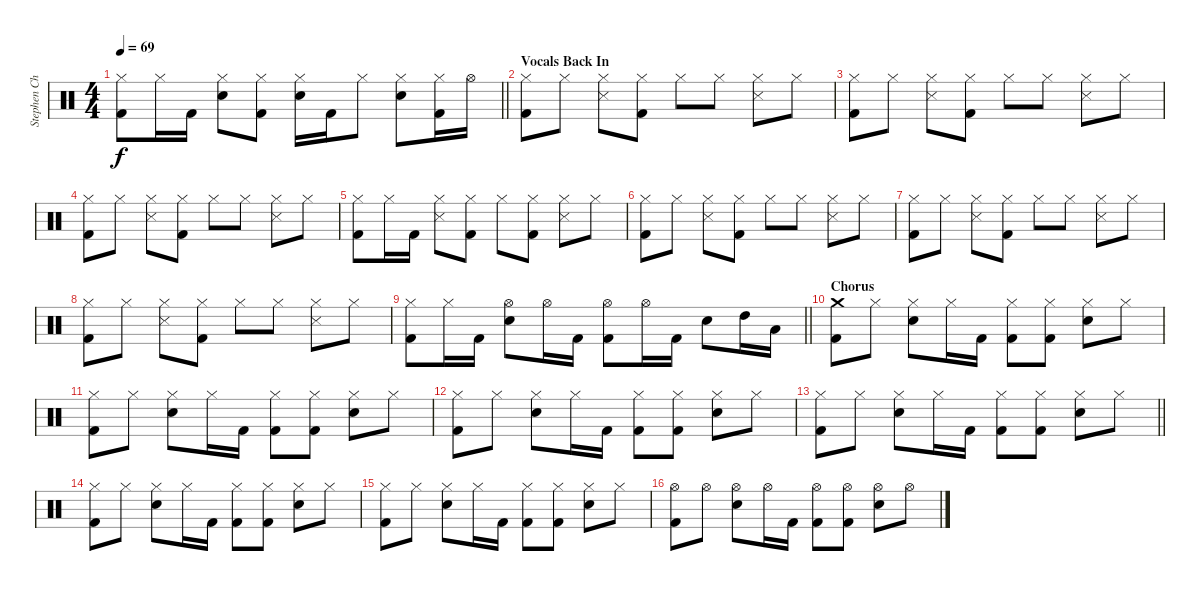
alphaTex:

\track ("Stephen Chopek" "Stephen Ch") {instrument percussion}
\staff {score}
\articulation defaults
\ts (4 4)
\tempo 69
\clef neutral
\barLineRight lightlight
\ks c
("Hi-Hat (closed)" "Kick (hit) 2").8{dy f} "Hi-Hat (closed)".16 "Kick (hit) 2".16 ("Hi-Hat (closed)" "Snare (hit) 2").8 ("Hi-Hat (closed)" "Kick (hit) 2").8 ("Hi-Hat (closed)" "Snare (hit) 2").16 "Kick (hit) 2".16 "Hi-Hat (closed)".8 ("Hi-Hat (closed)" "Snare (hit) 2").8 ("Hi-Hat (closed)" "Kick (hit) 2").16 "Hi-Hat (open)".16 |
\section ("" "Vocals Back In")
("Hi-Hat (closed)" "Kick (hit) 2").8{volume 11} "Hi-Hat (closed)".8 ("Hi-Hat (closed)" "Snare (side stick) 3").8 ("Hi-Hat (closed)" "Kick (hit) 2").8 "Hi-Hat (closed)".8 "Hi-Hat (closed)".8 ("Hi-Hat (closed)" "Snare (side stick) 3").8 "Hi-Hat (closed)".8 |
("Hi-Hat (closed)" "Kick (hit) 2").8 "Hi-Hat (closed)".8 ("Hi-Hat (closed)" "Snare (side stick) 3").8 ("Hi-Hat (closed)" "Kick (hit) 2").8 "Hi-Hat (closed)".8 "Hi-Hat (closed)".8 ("Hi-Hat (closed)" "Snare (side stick) 3").8 "Hi-Hat (closed)".8 |
("Hi-Hat (closed)" "Kick (hit) 2").8 "Hi-Hat (closed)".8 ("Hi-Hat (closed)" "Snare (side stick) 3").8 ("Hi-Hat (closed)" "Kick (hit) 2").8 "Hi-Hat (closed)".8 "Hi-Hat (closed)".8 ("Hi-Hat (closed)" "Snare (side stick) 3").8 "Hi-Hat (closed)".8 |
("Hi-Hat (closed)" "Kick (hit) 2").8 "Hi-Hat (closed)".16 "Kick (hit) 2".16 ("Hi-Hat (closed)" "Snare (side stick) 3").8 ("Hi-Hat (closed)" "Kick (hit) 2").8 "Hi-Hat (closed)".8 ("Hi-Hat (closed)" "Kick (hit) 2").8 ("Hi-Hat (closed)" "Snare (side stick) 3").8 "Hi-Hat (closed)".8 |
("Hi-Hat (closed)" "Kick (hit) 2").8 "Hi-Hat (closed)".8 ("Hi-Hat (closed)" "Snare (side stick) 3").8 ("Hi-Hat (closed)" "Kick (hit) 2").8 "Hi-Hat (closed)".8 "Hi-Hat (closed)".8 ("Hi-Hat (closed)" "Snare (side stick) 3").8 "Hi-Hat (closed)".8 |
("Hi-Hat (closed)" "Kick (hit) 2").8 "Hi-Hat (closed)".8 ("Hi-Hat (closed)" "Snare (side stick) 3").8 ("Hi-Hat (closed)" "Kick (hit) 2").8 "Hi-Hat (closed)".8 "Hi-Hat (closed)".8 ("Hi-Hat (closed)" "Snare (side stick) 3").8 "Hi-Hat (closed)".8 |
("Hi-Hat (closed)" "Kick (hit) 2").8 "Hi-Hat (closed)".8 ("Hi-Hat (closed)" "Snare (side stick) 3").8 ("Hi-Hat (closed)" "Kick (hit) 2").8 "Hi-Hat (closed)".8 "Hi-Hat (closed)".8 ("Hi-Hat (closed)" "Snare (side stick) 3").8 "Hi-Hat (closed)".8 |
\barLineRight lightlight
("Hi-Hat (closed)" "Kick (hit) 2").8{volume 14} "Hi-Hat (closed)".16 "Kick (hit) 2".16 ("Hi-Hat (open)" "Snare (hit) 2").8 "Hi-Hat (open)".16 "Kick (hit) 2".16 ("Hi-Hat (open)" "Kick (hit) 2").8 "Hi-Hat (open)".16 "Kick (hit) 2".16 "Snare (hit) 2".8 "High Tom (hit)".16 "Low Tom (hit)".16 |
\section ("" "Chorus")
("Crash medium (hit)" "Kick (hit) 2").8 "Hi-Hat (closed)".8 ("Hi-Hat (closed)" "Snare (hit) 2").8 "Hi-Hat (closed)".16 "Kick (hit) 2".16 ("Hi-Hat (closed)" "Kick (hit) 2").8 ("Hi-Hat (closed)" "Kick (hit) 2").8 ("Hi-Hat (closed)" "Snare (hit) 2").8 "Hi-Hat (closed)".8 |
("Hi-Hat (closed)" "Kick (hit) 2").8 "Hi-Hat (closed)".8 ("Hi-Hat (closed)" "Snare (hit) 2").8 "Hi-Hat (closed)".16 "Kick (hit) 2".16 ("Hi-Hat (closed)" "Kick (hit) 2").8 ("Hi-Hat (closed)" "Kick (hit) 2").8 ("Hi-Hat (closed)" "Snare (hit) 2").8 "Hi-Hat (closed)".8 |
("Hi-Hat (closed)" "Kick (hit) 2").8{volume 11} "Hi-Hat (closed)".8 ("Hi-Hat (closed)" "Snare (hit) 2").8 "Hi-Hat (closed)".16 "Kick (hit) 2".16 ("Hi-Hat (closed)" "Kick (hit) 2").8 ("Hi-Hat (closed)" "Kick (hit) 2").8 ("Hi-Hat (closed)" "Snare (hit) 2").8 "Hi-Hat (closed)".8 |
\barLineRight lightlight
("Hi-Hat (closed)" "Kick (hit) 2").8 "Hi-Hat (closed)".8 ("Hi-Hat (closed)" "Snare (hit) 2").8 "Hi-Hat (closed)".16 "Kick (hit) 2".16 ("Hi-Hat (closed)" "Kick (hit) 2").8 ("Hi-Hat (closed)" "Kick (hit) 2").8 ("Hi-Hat (closed)" "Snare (hit) 2").8 "Hi-Hat (closed)".8 |
("Hi-Hat (closed)" "Kick (hit) 2").8 "Hi-Hat (closed)".8 ("Hi-Hat (closed)" "Snare (hit) 2").8 "Hi-Hat (closed)".16 "Kick (hit) 2".16 ("Hi-Hat (closed)" "Kick (hit) 2").8 ("Hi-Hat (closed)" "Kick (hit) 2").8 ("Hi-Hat (closed)" "Snare (hit) 2").8 "Hi-Hat (closed)".8 |
("Hi-Hat (closed)" "Kick (hit) 2").8 "Hi-Hat (closed)".8 ("Hi-Hat (closed)" "Snare (hit) 2").8 "Hi-Hat (closed)".16 "Kick (hit) 2".16 ("Hi-Hat (closed)" "Kick (hit) 2").8 ("Hi-Hat (closed)" "Kick (hit) 2").8 ("Hi-Hat (closed)" "Snare (hit) 2").8 "Hi-Hat (closed)".8 |
("Hi-Hat (open)" "Kick (hit) 2").8{volume 16} "Hi-Hat (open)".8 ("Hi-Hat (open)" "Snare (hit) 2").8 "Hi-Hat (open)".16 "Kick (hit) 2".16 ("Hi-Hat (open)" "Kick (hit) 2").8 ("Hi-Hat (open)" "Kick (hit) 2").8 ("Hi-Hat (open)" "Snare (hit) 2").8 "Hi-Hat (open)".8
